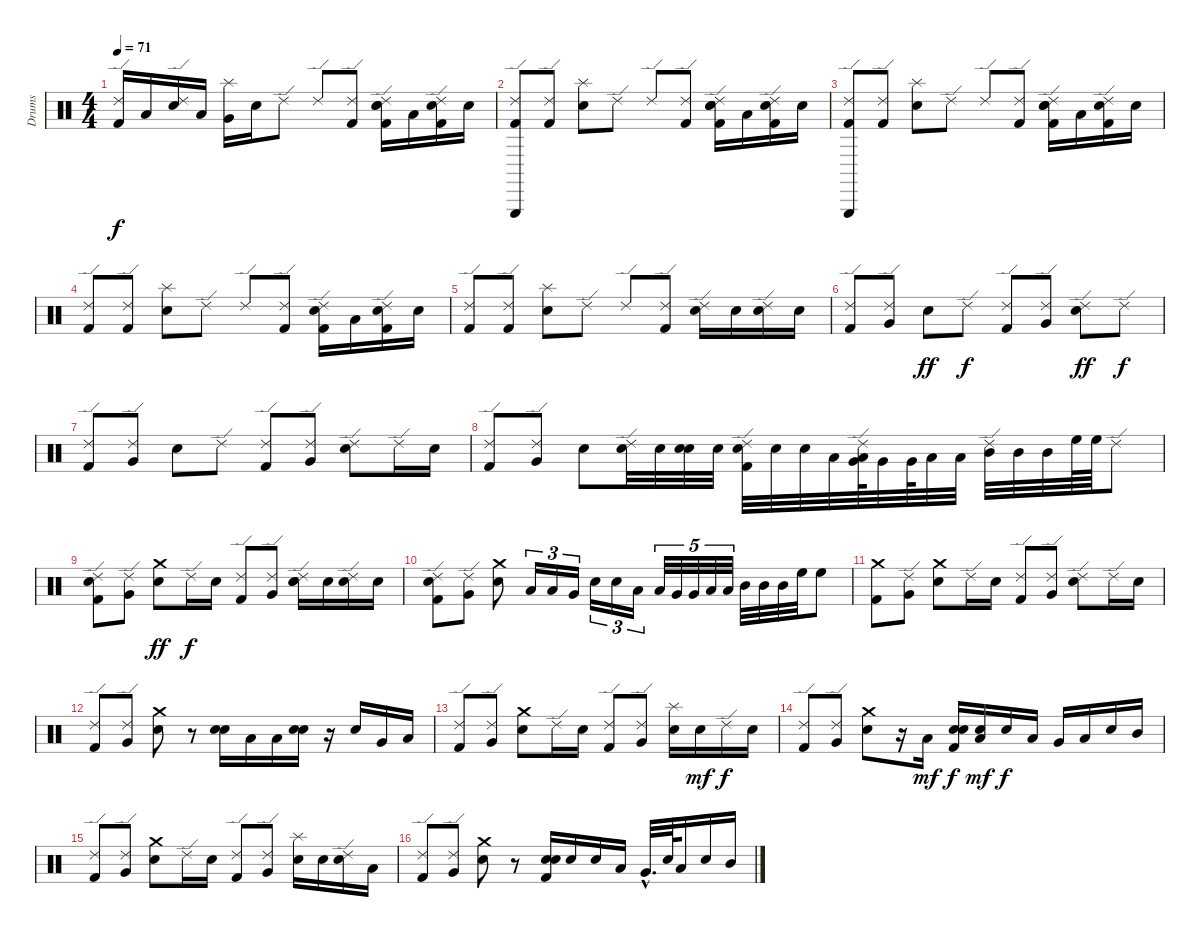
\track ("Drums" "Drums") {instrument percussion}
\staff {score}
\articulation defaults
\ts (4 4)
\tempo 71
\clef neutral
\ks c
("Ride (edge) 2" "Kick (hit) 2").16{dy f} "Low Floor Tom (hit)".16 ("Ride (edge) 2" "Snare (hit) 2").16 "Low Floor Tom (hit)".16 ("Splash (hit)" "Very Low Tom (hit)").16 "Snare (hit) 2".16 "Ride (edge) 2".8 "Ride (edge) 2".8 ("Ride (edge) 2" "Kick (hit) 2").8 ("Ride (edge) 2" "Snare (hit) 2" "Electric Snare (hit)" "Kick (hit) 2").16 "Low Floor Tom (hit)".16 ("Ride (edge) 2" "Snare (hit) 2" "Kick (hit) 2").16 "Snare (hit) 2".16 |
("Ride (edge) 2" "Triangle (hit)" "Kick (hit) 2").8 ("Ride (edge) 2" "Kick (hit) 2").8 ("Splash (hit)" "Snare (hit) 2").8 "Ride (edge) 2".8 "Ride (edge) 2".8 ("Ride (edge) 2" "Kick (hit) 2").8 ("Ride (edge) 2" "Snare (hit) 2" "Electric Snare (hit)" "Kick (hit) 2").16 "Low Floor Tom (hit)".16 ("Ride (edge) 2" "Snare (hit) 2" "Kick (hit) 2").16 "Snare (hit) 2".16 |
("Ride (edge) 2" "Triangle (hit)" "Kick (hit) 2").8 ("Ride (edge) 2" "Kick (hit) 2").8 ("Splash (hit)" "Snare (hit) 2").8 "Ride (edge) 2".8 "Ride (edge) 2".8 ("Ride (edge) 2" "Kick (hit) 2").8 ("Ride (edge) 2" "Snare (hit) 2" "Electric Snare (hit)" "Kick (hit) 2").16 "Low Floor Tom (hit)".16 ("Ride (edge) 2" "Snare (hit) 2" "Kick (hit) 2").16 "Snare (hit) 2".16 |
("Ride (edge) 2" "Kick (hit) 2").8 ("Ride (edge) 2" "Kick (hit) 2").8 ("Splash (hit)" "Snare (hit) 2").8 "Ride (edge) 2".8 "Ride (edge) 2".8 ("Ride (edge) 2" "Kick (hit) 2").8 ("Ride (edge) 2" "Snare (hit) 2" "Kick (hit) 2").16 "Low Floor Tom (hit)".16 ("Ride (edge) 2" "Snare (hit) 2" "Kick (hit) 2").16 "Snare (hit) 2".16 |
("Ride (edge) 2" "Kick (hit) 2").8 ("Ride (edge) 2" "Kick (hit) 2").8 ("Splash (hit)" "Snare (hit) 2").8 "Ride (edge) 2".8 "Ride (edge) 2".8 ("Ride (edge) 2" "Kick (hit) 2").8 ("Ride (edge) 2" "Snare (hit) 2").16 "Snare (hit) 2".16 ("Ride (edge) 2" "Snare (hit) 2").16 "Snare (hit) 2".16 |
("Ride (edge) 2" "Kick (hit) 2").8 ("Ride (edge) 2" "Very Low Tom (hit)").8 "Snare (hit) 2".8{dy ff} "Ride (edge) 2".8{dy f} ("Ride (edge) 2" "Kick (hit) 2").8 ("Ride (edge) 2" "Very Low Tom (hit)").8 ("Ride (edge) 2" "Snare (hit) 2").8{dy ff} "Ride (edge) 2".8{dy f} |
("Ride (edge) 2" "Kick (hit) 2").8 ("Ride (edge) 2" "Very Low Tom (hit)").8 "Snare (hit) 2".8 "Ride (edge) 2".8 ("Ride (edge) 2" "Kick (hit) 2").8 ("Ride (edge) 2" "Very Low Tom (hit)").8 ("Ride (edge) 2" "Snare (hit) 2").8 "Ride (edge) 2".16 "Electric Snare (hit)".16 |
("Ride (edge) 2" "Kick (hit) 2").8 ("Ride (edge) 2" "Very Low Tom (hit)").8 "Electric Snare (hit)".8 ("Ride (edge) 2" "Snare (hit) 2").32 "Snare (hit) 2".32 ("Snare (hit) 2" "Electric Snare (hit)").32 "Snare (hit) 2".32 ("Ride (edge) 2" "Electric Snare (hit)" "Kick (hit) 2").32 "Electric Snare (hit)".32 "Electric Snare (hit)".32 "Low Floor Tom (hit)".32 ("Ride (edge) 2" "Very Low Tom (hit)" "Low Floor Tom (hit)").64 "Very Low Tom (hit)".32 "Very Low Tom (hit)".64 "Low Tom (hit)".32 "Low Tom (hit)".32 ("Ride (edge) 2" "Mid Tom (hit)").32 "Mid Tom (hit)".32 "Mid Tom (hit)".32 "High Floor Tom (hit)".64 "High Floor Tom (hit)".64 "Ride (edge) 2".8 |
("Ride (edge) 2" "Electric Snare (hit)" "Kick (hit) 2").8 ("Ride (edge) 2" "Very Low Tom (hit)").8 ("Crash medium (hit)" "Electric Snare (hit)").8{dy ff} "Ride (edge) 2".16{dy f} "Snare (hit) 2".16 ("Ride (edge) 2" "Kick (hit) 2").8 ("Ride (edge) 2" "Very Low Tom (hit)").8 ("Ride (edge) 2" "Snare (hit) 2" "Electric Snare (hit)").16 "Snare (hit) 2".16 ("Ride (edge) 2" "Electric Snare (hit)").16 "Electric Snare (hit)".16 |
("Ride (edge) 2" "Electric Snare (hit)" "Kick (hit) 2").8 ("Ride (edge) 2" "Very Low Tom (hit)").8 ("Crash medium (hit)" "Electric Snare (hit)").8 "Low Tom (hit)".16{tu (3 2)} "Low Tom (hit)".16{tu (3 2)} "Very Low Tom (hit)".16{tu (3 2)} "Electric Snare (hit)".16{tu (3 2)} "Electric Snare (hit)".16{tu (3 2)} "Low Floor Tom (hit)".16{tu (3 2)} "Low Floor Tom (hit)".32{tu (5 4)} "Very Low Tom (hit)".32{tu (5 4)} "Very Low Tom (hit)".32{tu (5 4)} "Low Tom (hit)".32{tu (5 4)} "Low Tom (hit)".32{tu (5 4)} "Mid Tom (hit)".32 "Mid Tom (hit)".32 "Mid Tom (hit)".32 "High Floor Tom (hit)".32 "High Floor Tom (hit)".8 |
("Crash medium (hit)" "Kick (hit) 2").8 ("Ride (edge) 2" "Very Low Tom (hit)").8 ("Crash medium (hit)" "Electric Snare (hit)").8 "Ride (edge) 2".16 "Electric Snare (hit)".16 ("Ride (edge) 2" "Kick (hit) 2").8 ("Ride (edge) 2" "Very Low Tom (hit)").8 ("Ride (edge) 2" "Electric Snare (hit)").8 "Ride (edge) 2".16 "Electric Snare (hit)".16 |
("Ride (edge) 2" "Kick (hit) 2").8 ("Ride (edge) 2" "Very Low Tom (hit)").8 ("Crash medium (hit)" "Electric Snare (hit)").8 r.8 ("Snare (hit) 2" "Electric Snare (hit)").16 "Low Floor Tom (hit)".16 "Low Floor Tom (hit)".16 ("Snare (hit) 2" "Electric Snare (hit)").16 r.16 "Electric Snare (hit)".16 "Very Low Tom (hit)".16 "Low Tom (hit)".16 |
("Ride (edge) 2" "Kick (hit) 2").8 ("Ride (edge) 2" "Very Low Tom (hit)").8 ("Crash medium (hit)" "Electric Snare (hit)").8 "Ride (edge) 2".16 "Electric Snare (hit)".16 ("Ride (edge) 2" "Kick (hit) 2").8 ("Ride (edge) 2" "Very Low Tom (hit)").8 ("Splash (hit)" "Snare (hit) 2").16 "Electric Snare (hit)".16{dy mf} "Ride (edge) 2".16{dy f} "Electric Snare (hit)".16 |
("Ride (edge) 2" "Kick (hit) 2").8 ("Ride (edge) 2" "Very Low Tom (hit)").8 ("Crash medium (hit)" "Electric Snare (hit)").8 r.16 "Low Floor Tom (hit)".16{dy mf} ("Snare (hit) 2" "Electric Snare (hit)" "Kick (hit) 2").16{dy f} ("Electric Snare (hit)" "Low Floor Tom (hit)").16{dy mf} "Electric Snare (hit)".16{dy f} "Low Floor Tom (hit)".16 "Very Low Tom (hit)".16 "Low Tom (hit)".16 "Electric Snare (hit)".16 "Mid Tom (hit)".16 |
("Ride (edge) 2" "Kick (hit) 2").8 ("Ride (edge) 2" "Very Low Tom (hit)").8 ("Crash medium (hit)" "Electric Snare (hit)").8 "Ride (edge) 2".16 "Electric Snare (hit)".16 ("Ride (edge) 2" "Kick (hit) 2").8 ("Ride (edge) 2" "Very Low Tom (hit)").8 ("Splash (hit)" "Electric Snare (hit)").16 "Electric Snare (hit)".16 ("Ride (edge) 2" "Electric Snare (hit)").16 "Low Floor Tom (hit)".16 |
("Ride (edge) 2" "Kick (hit) 2").8 ("Ride (edge) 2" "Very Low Tom (hit)").8 ("Crash medium (hit)" "Electric Snare (hit)").8 r.8 ("Snare (hit) 2" "Electric Snare (hit)" "Kick (hit) 2").16 "Electric Snare (hit)".16 "Electric Snare (hit)".16 "Low Floor Tom (hit)".16 "Very Low Tom (hit)"{hac}.32{d} "Electric Snare (hit)".64 "Low Tom (hit)".16 "Electric Snare (hit)".16 "Mid Tom (hit)".16
